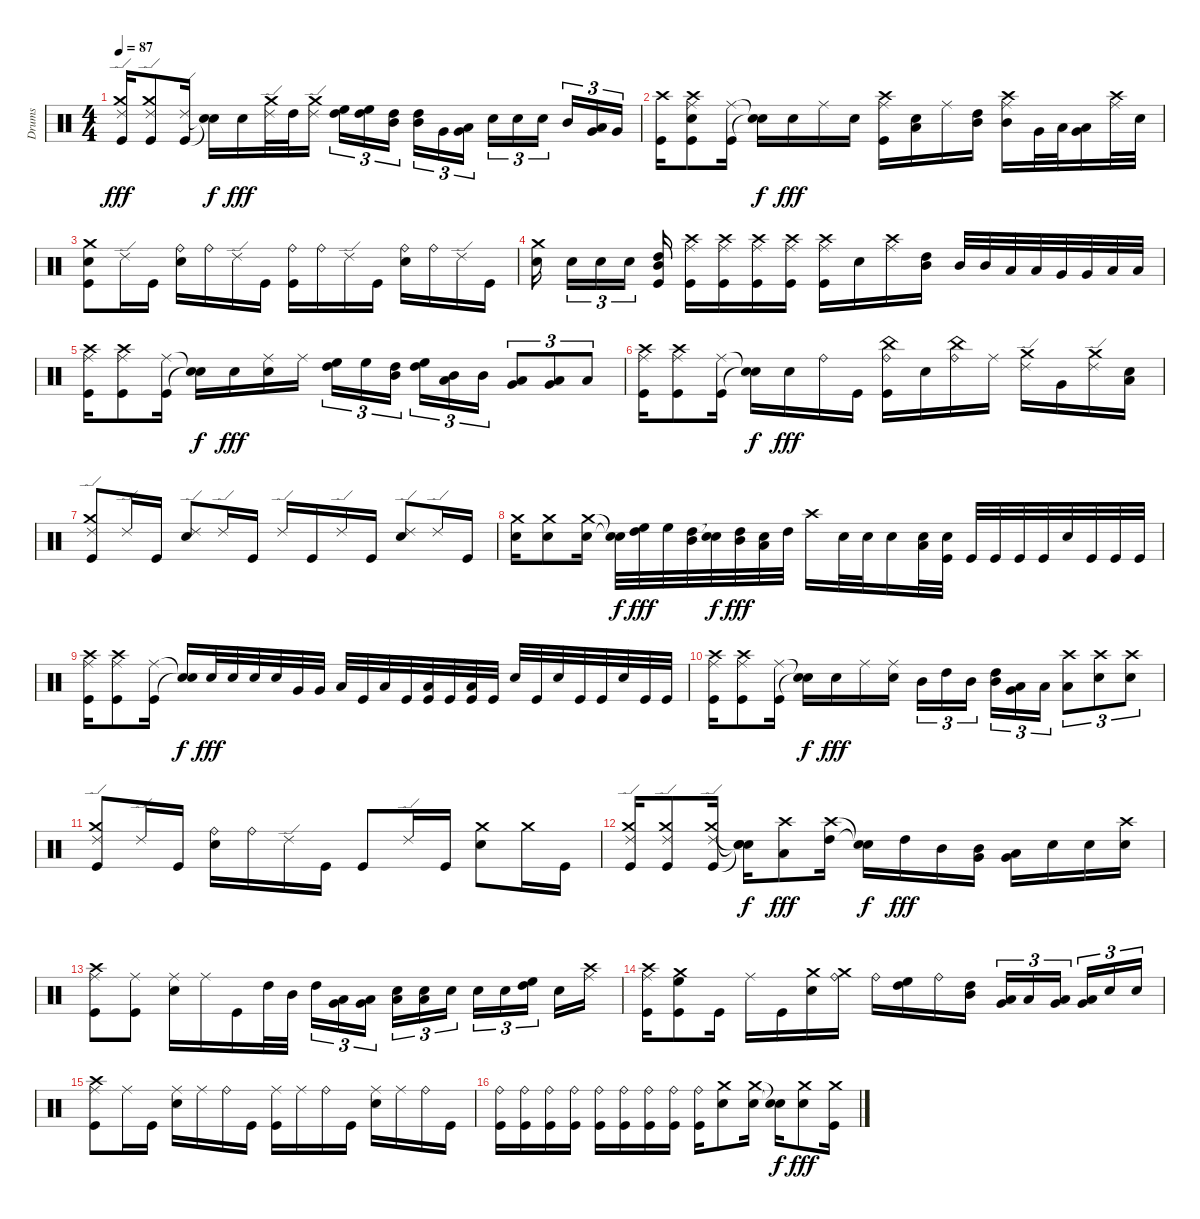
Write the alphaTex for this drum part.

\track ("Drums" "Drums") {instrument percussion}
\staff {score}
\articulation defaults
\ts (4 4)
\tempo 87
\clef neutral
\ks c
("Ride (edge) 2" "Crash medium (hit)" "Kick (hit)").16{dy fff} ("Ride (edge) 2" "Crash medium (hit)" "Kick (hit)").8 ("Ride (edge) 2" "Kick (hit)").16 ("Snare (hit)"{t} "Snare (hit)"{t}).16{dy f} "Snare (hit) 2".16{dy fff} ("Ride (edge) 2" "Crash medium (hit)").32 "High Tom (hit)".32 ("Ride (edge) 2" "Crash medium (hit)").16 ("High Floor Tom (hit)" "High Tom (hit)").16{tu (3 2)} ("High Floor Tom (hit)" "High Tom (hit)").16{tu (3 2)} ("High Tom (hit)" "Mid Tom (hit)").16{tu (3 2)} ("High Tom (hit)" "Mid Tom (hit)").16{tu (3 2)} "Very Low Tom (hit)".16{tu (3 2)} ("Low Tom (hit)" "Very Low Tom (hit)").16{tu (3 2)} "Snare (hit) 2".16{tu (3 2)} "Snare (hit) 2".16{tu (3 2)} "Snare (hit) 2".16{tu (3 2)} "Mid Tom (hit)".16{tu (3 2)} ("Very Low Tom (hit)" "Low Floor Tom (hit)").16{tu (3 2)} "Very Low Tom (hit)".16{tu (3 2)} |
("Crash high (hit)" "Kick (hit)").16 ("Ride (middle)" "Crash high (hit)" "Snare (hit) 2" "Kick (hit)").8 ("Ride (middle)" "Kick (hit)").16 ("Snare (hit)"{t} "Snare (hit)"{t}).16{dy f} "Snare (hit) 2".16{dy fff} "Ride (middle)".16 "Snare (hit) 2".16 ("Ride (middle)" "Crash high (hit)" "Kick (hit)").16 ("Low Floor Tom (hit)" "Snare (hit) 2").16 "Ride (middle)".16 ("High Tom (hit)" "Mid Tom (hit)").16 ("Ride (middle)" "Crash high (hit)" "Mid Tom (hit)").16 "Very Low Tom (hit)".32 "Low Tom (hit)".32 ("Very Low Tom (hit)" "Low Floor Tom (hit)").16 ("Ride (middle)" "Crash high (hit)").32 "Snare (hit) 2".32 |
("Crash medium (hit)" "Snare (hit) 2" "Kick (hit)").8 "Ride (edge) 2".16 "Kick (hit)".16 ("Ride (bell)" "Snare (hit) 2").16 "Ride (bell)".16 "Ride (edge) 2".16 "Kick (hit)".16 ("Ride (bell)" "Kick (hit)").16 "Ride (bell)".16 "Ride (edge) 2".16 "Kick (hit)".16 ("Ride (bell)" "Snare (hit) 2").16 "Ride (bell)".16 "Ride (edge) 2".16 "Kick (hit)".16 |
("Crash medium (hit)" "Snare (hit) 2").16 "Snare (hit) 2".16{tu (3 2)} "Snare (hit) 2".16{tu (3 2)} "Snare (hit) 2".16{tu (3 2)} ("High Tom (hit)" "Mid Tom (hit)" "Kick (hit)").16 ("Ride (middle)" "Crash high (hit)" "Kick (hit)").16 ("Ride (middle)" "Crash high (hit)" "Kick (hit)").16 ("Ride (middle)" "Crash high (hit)" "Kick (hit)").16 ("Ride (middle)" "Crash high (hit)" "Kick (hit)").16 ("Ride (middle)" "Crash high (hit)" "Kick (hit)").16 "Snare (hit) 2".16 ("Ride (middle)" "Crash high (hit)").16 ("High Tom (hit)" "Mid Tom (hit)").16 "Mid Tom (hit)".32 "Mid Tom (hit)".32 "Low Tom (hit)".32 "Low Tom (hit)".32 "Very Low Tom (hit)".32 "Very Low Tom (hit)".32 "Low Floor Tom (hit)".32 "Low Floor Tom (hit)".32 |
("Ride (middle)" "Crash high (hit)" "Kick (hit)").16 ("Ride (middle)" "Crash high (hit)" "Kick (hit)").8 ("Ride (middle)" "Kick (hit)").16 ("Snare (hit)"{t} "Snare (hit)"{t}).16{dy f} "Snare (hit) 2".16{dy fff} ("Ride (middle)" "Snare (hit) 2").16 "Ride (middle)".16 ("High Floor Tom (hit)" "High Tom (hit)").16{tu (3 2)} "High Floor Tom (hit)".16{tu (3 2)} ("High Tom (hit)" "Mid Tom (hit)").16{tu (3 2)} ("High Floor Tom (hit)" "High Tom (hit)").16{tu (3 2)} ("Mid Tom (hit)" "Low Tom (hit)").16{tu (3 2)} "Mid Tom (hit)".16{tu (3 2)} ("Very Low Tom (hit)" "Low Floor Tom (hit)").8{tu (3 2)} ("Very Low Tom (hit)" "Low Floor Tom (hit)").8{tu (3 2)} "Low Floor Tom (hit)".8{tu (3 2)} |
("Ride (middle)" "Crash high (hit)" "Kick (hit)").16 ("Ride (middle)" "Crash high (hit)" "Kick (hit)").8 ("Ride (middle)" "Kick (hit)").16 ("Snare (hit)"{t} "Snare (hit)"{t}).16{dy f} "Snare (hit) 2".16{dy fff} "Ride (bell)".16 "Kick (hit)".16 ("Ride (bell)" "China (hit)" "Kick (hit)").16 "Snare (hit) 2".16 ("Ride (bell)" "China (hit)").16 "Ride (middle)".16 ("Ride (edge) 2" "Crash medium (hit)").16 "Very Low Tom (hit)".16 ("Ride (edge) 2" "Crash medium (hit)").16 ("Low Floor Tom (hit)" "Snare (hit) 2").16 |
("Ride (edge) 2" "Crash medium (hit)" "Kick (hit)").8 "Ride (edge) 2".16 "Kick (hit)".16 ("Ride (edge) 2" "Snare (hit) 2").8 "Ride (edge) 2".16 "Kick (hit)".16 "Ride (edge) 2".16 "Kick (hit)".16 "Ride (edge) 2".16 "Kick (hit)".16 ("Ride (edge) 2" "Snare (hit) 2").8 "Ride (edge) 2".16 "Kick (hit)".16 |
("Crash medium (hit)" "Snare (hit) 2").16 ("Crash medium (hit)" "Snare (hit) 2").8 ("Crash medium (hit)" "Snare (hit) 2").16 ("Snare (hit)"{t} "Snare (hit)"{t}).32{dy f} ("High Floor Tom (hit)" "High Tom (hit)").32{dy fff} "High Floor Tom (hit)".32 ("High Tom (hit)" "Mid Tom (hit)").32 ("Snare (hit)"{t} "Snare (hit)"{t}).32{dy f} ("High Tom (hit)" "Mid Tom (hit)").32{dy fff} ("Low Floor Tom (hit)" "Snare (hit) 2").32 "High Tom (hit)".32 "Crash high (hit)".16 "Snare (hit) 2".32 "Snare (hit) 2".32 "Snare (hit) 2".16 ("Low Floor Tom (hit)" "Snare (hit) 2").32 ("Snare (hit) 2" "Kick (hit)").32 "Kick (hit)".32 "Kick (hit)".32 "Kick (hit)".32 "Kick (hit)".32 "Snare (hit) 2".32 "Kick (hit)".32 "Kick (hit)".32 "Kick (hit)".32 |
("Ride (middle)" "Crash high (hit)" "Kick (hit)").16 ("Ride (middle)" "Crash high (hit)" "Kick (hit)").8 ("Ride (middle)" "Kick (hit)").16 ("Snare (hit)"{t} "Snare (hit)"{t}).16{dy f} "Snare (hit) 2".32{dy fff} "Snare (hit) 2".32 "Snare (hit) 2".32 "Snare (hit) 2".32 "Very Low Tom (hit)".32 "Very Low Tom (hit)".32 "Low Tom (hit)".32 "Kick (hit)".32 "Low Floor Tom (hit)".32 "Kick (hit)".32 ("Low Floor Tom (hit)" "Kick (hit)").32 "Kick (hit)".32 ("Low Floor Tom (hit)" "Kick (hit)").32 "Kick (hit)".32 "Snare (hit) 2".32 "Kick (hit)".32 "Snare (hit) 2".32 "Kick (hit)".32 "Kick (hit)".32 "Snare (hit) 2".32 "Kick (hit)".32 "Kick (hit)".32 |
("Ride (middle)" "Crash high (hit)" "Kick (hit)").16 ("Ride (middle)" "Crash high (hit)" "Kick (hit)").8 ("Ride (middle)" "Kick (hit)").16 ("Snare (hit)"{t} "Snare (hit)"{t}).16{dy f} "Snare (hit) 2".16{dy fff} "Ride (middle)".16 ("Ride (middle)" "Snare (hit) 2").16 "Mid Tom (hit)".16{tu (3 2)} "High Tom (hit)".16{tu (3 2)} "Mid Tom (hit)".16{tu (3 2)} ("High Tom (hit)" "Mid Tom (hit)").16{tu (3 2)} ("Low Tom (hit)" "Very Low Tom (hit)").16{tu (3 2)} "Low Tom (hit)".16{tu (3 2)} ("Crash high (hit)" "Low Floor Tom (hit)").8{tu (3 2)} ("Crash high (hit)" "Snare (hit) 2").8{tu (3 2)} ("Crash high (hit)" "Snare (hit) 2").8{tu (3 2)} |
("Ride (edge) 2" "Crash medium (hit)" "Kick (hit)").8 "Ride (edge) 2".16 "Kick (hit)".16 ("Ride (bell)" "Snare (hit) 2").16 "Ride (bell)".16 "Ride (edge) 2".16 "Kick (hit)".16 "Kick (hit)".8 "Ride (edge) 2".16 "Kick (hit)".16 ("Crash medium (hit)" "Snare (hit) 2").8 "Crash medium (hit)".16 "Kick (hit)".16 |
("Ride (edge) 2" "Crash medium (hit)" "Kick (hit)").16 ("Ride (edge) 2" "Crash medium (hit)" "Kick (hit)").8 ("Ride (edge) 2" "Crash medium (hit)" "Kick (hit)").16 ("Snare (hit)"{t} "Snare (hit)"{t} "Snare (hit)"{t}).16{dy f} ("Crash high (hit)" "Low Tom (hit)").8{dy fff} ("Crash high (hit)" "High Tom (hit)").16 ("Snare (hit)"{t} "Snare (hit)"{t}).16{dy f} "High Tom (hit)".16{dy fff} "Mid Tom (hit)".16 ("Mid Tom (hit)" "Very Low Tom (hit)").16 ("Low Tom (hit)" "Very Low Tom (hit)").16 "Snare (hit) 2".16 "Snare (hit) 2".16 ("Crash high (hit)" "Snare (hit) 2").16 |
("Ride (middle)" "Crash high (hit)" "Kick (hit)").8 ("Ride (middle)" "Kick (hit)").8 ("Ride (middle)" "Snare (hit) 2").16 "Ride (middle)".16 "Kick (hit)".16 "High Tom (hit)".32 "Mid Tom (hit)".32 "High Tom (hit)".16{tu (3 2)} ("Low Tom (hit)" "Very Low Tom (hit)").16{tu (3 2)} ("Low Tom (hit)" "Very Low Tom (hit)").16{tu (3 2)} ("Low Floor Tom (hit)" "Snare (hit) 2").16{tu (3 2)} ("Low Floor Tom (hit)" "Snare (hit) 2").16{tu (3 2)} "Snare (hit) 2".16{tu (3 2)} "Snare (hit) 2".16{tu (3 2)} "Snare (hit) 2".16{tu (3 2)} ("High Floor Tom (hit)" "High Tom (hit)").16{tu (3 2)} "Snare (hit) 2".16 ("Ride (middle)" "Crash high (hit)").16 |
("Ride (middle)" "Crash high (hit)" "Kick (hit)").16 ("Crash medium (hit)" "High Floor Tom (hit)" "Kick (hit)").8 "Kick (hit)".16 "Ride (middle)".16 "Kick (hit)".16 ("Crash medium (hit)" "Snare (hit) 2").16 ("Ride (bell)" "Crash medium (hit)").16 "Ride (bell)".16 ("High Floor Tom (hit)" "High Tom (hit)").16 "Ride (bell)".16 ("High Tom (hit)" "Mid Tom (hit)").16 ("Low Tom (hit)" "Very Low Tom (hit)").16{tu (3 2)} "Low Tom (hit)".16{tu (3 2)} ("Very Low Tom (hit)" "Low Floor Tom (hit)").16{tu (3 2)} ("Very Low Tom (hit)" "Low Floor Tom (hit)").16{tu (3 2)} "Snare (hit) 2".16{tu (3 2)} "Snare (hit) 2".16{tu (3 2)} |
("Ride (middle)" "Crash high (hit)" "Kick (hit)").8 "Ride (middle)".16 "Kick (hit)".16 ("Ride (middle)" "Snare (hit) 2").16 "Ride (middle)".16 "Ride (bell)".16 "Kick (hit)".16 ("Ride (middle)" "Kick (hit)").16 "Ride (middle)".16 "Ride (bell)".16 "Kick (hit)".16 ("Ride (middle)" "Snare (hit) 2").16 "Ride (middle)".16 "Ride (bell)".16 "Kick (hit)".16 |
("Ride (bell)" "Kick (hit)").16 ("Ride (bell)" "Kick (hit)").16 ("Ride (bell)" "Kick (hit)").16 ("Ride (bell)" "Kick (hit)").16 ("Ride (bell)" "Kick (hit)").16 ("Ride (bell)" "Kick (hit)").16 ("Ride (bell)" "Kick (hit)").16 ("Ride (bell)" "Kick (hit)").16 ("Ride (bell)" "Kick (hit)").16 ("Crash medium (hit)" "Snare (hit) 2").8 ("Crash medium (hit)" "Snare (hit) 2").16 ("Snare (hit)"{t} "Snare (hit)"{t}).16{dy f} ("Crash medium (hit)" "Snare (hit) 2").8{dy fff} ("Crash medium (hit)" "Kick (hit)").16
